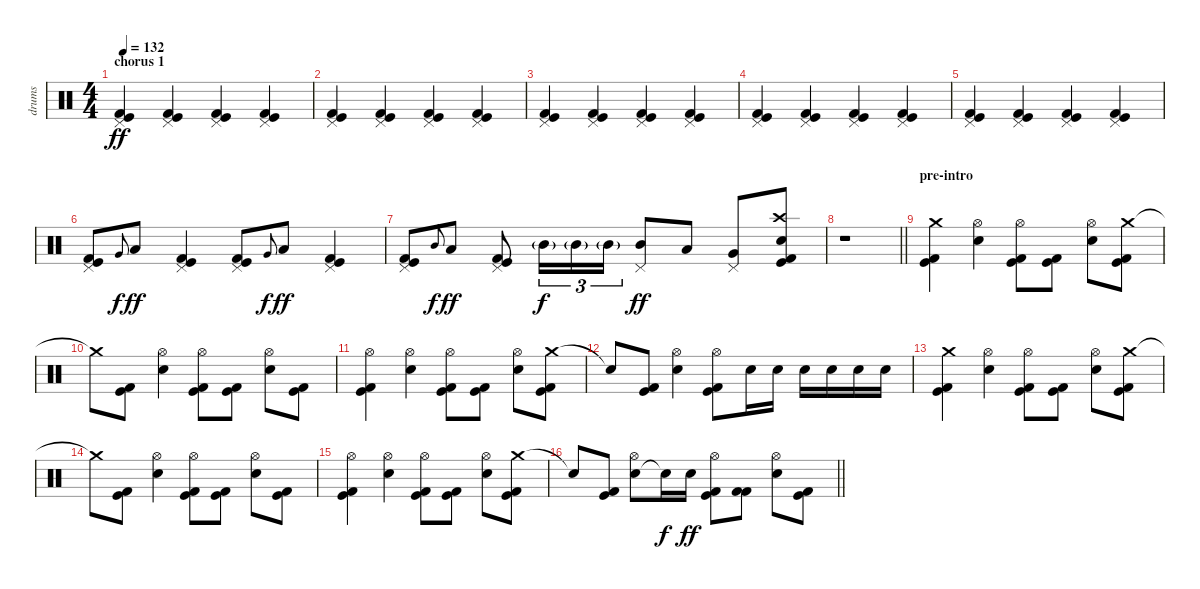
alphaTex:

\track ("drums" "drums") {instrument percussion}
\staff {score}
\articulation defaults
\ts (4 4)
\section ("" "chorus 1")
\tempo 132
\clef neutral
\ks c
("Pedal Hi-Hat (hit)" "Kick (hit)" "Kick (hit) 2").4{dy ff} ("Pedal Hi-Hat (hit)" "Kick (hit)" "Kick (hit) 2").4 ("Pedal Hi-Hat (hit)" "Kick (hit)" "Kick (hit) 2").4 ("Pedal Hi-Hat (hit)" "Kick (hit)" "Kick (hit) 2").4 |
("Pedal Hi-Hat (hit)" "Kick (hit)" "Kick (hit) 2").4 ("Pedal Hi-Hat (hit)" "Kick (hit)" "Kick (hit) 2").4 ("Pedal Hi-Hat (hit)" "Kick (hit)" "Kick (hit) 2").4 ("Pedal Hi-Hat (hit)" "Kick (hit)" "Kick (hit) 2").4 |
("Pedal Hi-Hat (hit)" "Kick (hit)" "Kick (hit) 2").4 ("Pedal Hi-Hat (hit)" "Kick (hit)" "Kick (hit) 2").4 ("Pedal Hi-Hat (hit)" "Kick (hit)" "Kick (hit) 2").4 ("Pedal Hi-Hat (hit)" "Kick (hit)" "Kick (hit) 2").4 |
("Pedal Hi-Hat (hit)" "Kick (hit)" "Kick (hit) 2").4 ("Pedal Hi-Hat (hit)" "Kick (hit)" "Kick (hit) 2").4 ("Pedal Hi-Hat (hit)" "Kick (hit)" "Kick (hit) 2").4 ("Pedal Hi-Hat (hit)" "Kick (hit)" "Kick (hit) 2").4 |
("Pedal Hi-Hat (hit)" "Kick (hit)" "Kick (hit) 2").4 ("Pedal Hi-Hat (hit)" "Kick (hit)" "Kick (hit) 2").4 ("Pedal Hi-Hat (hit)" "Kick (hit)" "Kick (hit) 2").4 ("Pedal Hi-Hat (hit)" "Kick (hit)" "Kick (hit) 2").4 |
("Pedal Hi-Hat (hit)" "Kick (hit)" "Kick (hit) 2").8 "Very Low Tom (hit)".8{gr onbeat dy f} "Low Floor Tom (hit)".8{dy ff} ("Pedal Hi-Hat (hit)" "Kick (hit)" "Kick (hit) 2").4 ("Pedal Hi-Hat (hit)" "Kick (hit)" "Kick (hit) 2").8 "Very Low Tom (hit)".8{gr onbeat dy f} "Low Tom (hit)".8{dy ff} ("Pedal Hi-Hat (hit)" "Kick (hit)" "Kick (hit) 2").4 |
("Pedal Hi-Hat (hit)" "Kick (hit)" "Kick (hit) 2").8 "Mid Tom (hit)".8{gr onbeat dy f} "Low Tom (hit)".8{dy ff} ("Pedal Hi-Hat (hit)" "Kick (hit)" "Kick (hit) 2").8 "Mid Tom (hit)"{g}.16{tu (3 2) dy f} "Mid Tom (hit)"{g}.16{tu (3 2)} "Mid Tom (hit)"{g}.16{tu (3 2)} ("Mid Tom (hit)" "Pedal Hi-Hat (hit)").8{dy ff} "Low Tom (hit)".8 ("Very Low Tom (hit)" "Pedal Hi-Hat (hit)").8 ("Crash high (hit)" "Electric Snare (hit)" "Kick (hit)" "Kick (hit) 2").8 |
\barLineRight lightlight
r.1 |
\section ("" "pre-intro")
("Crash medium (hit)" "Kick (hit)" "Kick (hit) 2").4 ("Electric Snare (hit)" "Hi-Hat (open)").4 ("Hi-Hat (open)" "Kick (hit)" "Kick (hit) 2").8 ("Kick (hit)" "Kick (hit) 2").8 ("Electric Snare (hit)" "Hi-Hat (open)").8 ("Crash medium (hit)" "Kick (hit)" "Kick (hit) 2").8 |
"Crash medium (hit)"{t}.8 ("Kick (hit)" "Kick (hit) 2").8 ("Electric Snare (hit)" "Hi-Hat (open)").4 ("Hi-Hat (open)" "Kick (hit)" "Kick (hit) 2").8 ("Kick (hit)" "Kick (hit) 2").8 ("Electric Snare (hit)" "Hi-Hat (open)").8 ("Kick (hit)" "Kick (hit) 2").8 |
("Hi-Hat (open)" "Kick (hit)" "Kick (hit) 2").4 ("Electric Snare (hit)" "Hi-Hat (open)").4 ("Hi-Hat (open)" "Kick (hit)" "Kick (hit) 2").8 ("Kick (hit)" "Kick (hit) 2").8 ("Electric Snare (hit)" "Hi-Hat (open)").8 ("Crash medium (hit)" "Kick (hit)" "Kick (hit) 2").8 |
"Snare (hit)"{t}.8 ("Kick (hit)" "Kick (hit) 2").8 ("Electric Snare (hit)" "Hi-Hat (open)").4 ("Hi-Hat (open)" "Kick (hit)" "Kick (hit) 2").8 "Electric Snare (hit)".16 "Electric Snare (hit)".16 "Electric Snare (hit)".16 "Electric Snare (hit)".16 "Electric Snare (hit)".16 "Electric Snare (hit)".16 |
("Crash medium (hit)" "Kick (hit)" "Kick (hit) 2").4 ("Electric Snare (hit)" "Hi-Hat (open)").4 ("Hi-Hat (open)" "Kick (hit)" "Kick (hit) 2").8 ("Kick (hit)" "Kick (hit) 2").8 ("Electric Snare (hit)" "Hi-Hat (open)").8 ("Crash medium (hit)" "Kick (hit)" "Kick (hit) 2").8 |
"Crash medium (hit)"{t}.8 ("Kick (hit)" "Kick (hit) 2").8 ("Electric Snare (hit)" "Hi-Hat (open)").4 ("Hi-Hat (open)" "Kick (hit)" "Kick (hit) 2").8 ("Kick (hit)" "Kick (hit) 2").8 ("Electric Snare (hit)" "Hi-Hat (open)").8 ("Kick (hit)" "Kick (hit) 2").8 |
("Hi-Hat (open)" "Kick (hit)" "Kick (hit) 2").4 ("Electric Snare (hit)" "Hi-Hat (open)").4 ("Hi-Hat (open)" "Kick (hit)" "Kick (hit) 2").8 ("Kick (hit)" "Kick (hit) 2").8 ("Electric Snare (hit)" "Hi-Hat (open)").8 ("Crash medium (hit)" "Kick (hit)" "Kick (hit) 2").8 |
\barLineRight lightlight "Snare (hit)"{t}.8
("Kick (hit)" "Kick (hit) 2").8 ("Electric Snare (hit)" "Hi-Hat (open)").8 "Electric Snare (hit)"{t}.16{dy f} "Electric Snare (hit)".16{dy ff} ("Hi-Hat (open)" "Kick (hit)" "Kick (hit) 2").8 ("Kick (hit) 2" "Kick (hit) 2").8 ("Electric Snare (hit)" "Hi-Hat (open)").8 ("Kick (hit)" "Kick (hit) 2").8
